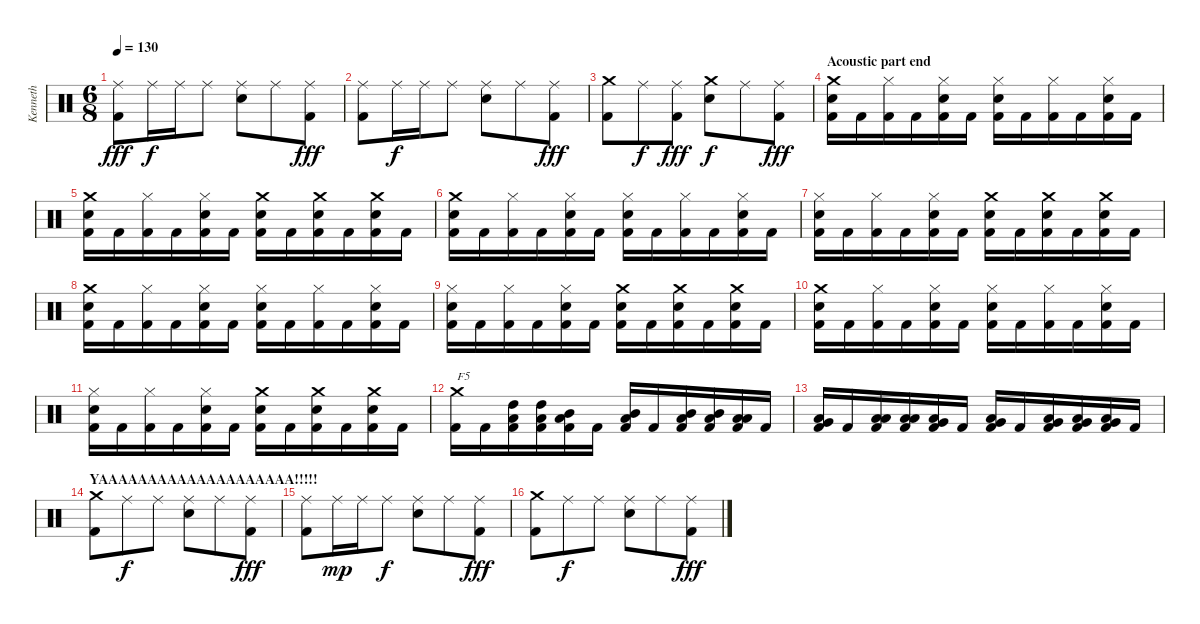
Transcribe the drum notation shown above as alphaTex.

\track ("Kenneth" "Kenneth") {instrument percussion}
\staff {score}
\articulation defaults
\ts (6 8)
\tempo 130
\clef neutral
\ks c
("Ride (middle)" "Kick (hit) 2").8{dy fff} "Ride (middle)".16{dy f} "Ride (middle)".16 "Ride (middle)".8 ("Ride (middle)" "Electric Snare (hit)").8 "Ride (middle)".8 ("Ride (middle)" "Kick (hit) 2").8{dy fff} |
("Ride (middle)" "Kick (hit) 2").8 "Ride (middle)".16{dy f} "Ride (middle)".16 "Ride (middle)".8 ("Ride (middle)" "Electric Snare (hit)").8 "Ride (middle)".8 ("Ride (middle)" "Kick (hit) 2").8{dy fff} |
("Crash medium (hit)" "Kick (hit) 2").8 "Ride (middle)".8{dy f} ("Ride (middle)" "Kick (hit) 2").8{dy fff} ("Crash medium (hit)" "Electric Snare (hit)").8{dy f} "Ride (middle)".8 ("Ride (middle)" "Kick (hit) 2").8{dy fff} |
\section ("" "Acoustic part end")
("Crash medium (hit)" "Electric Snare (hit)" "Kick (hit) 2").16 "Kick (hit) 2".16 ("Hi-Hat (closed)" "Kick (hit) 2").16 "Kick (hit) 2".16 ("Hi-Hat (closed)" "Electric Snare (hit)" "Kick (hit) 2").16 "Kick (hit) 2".16 ("Hi-Hat (closed)" "Electric Snare (hit)" "Kick (hit) 2").16 "Kick (hit) 2".16 ("Hi-Hat (closed)" "Kick (hit) 2").16 "Kick (hit) 2".16 ("Hi-Hat (closed)" "Electric Snare (hit)" "Kick (hit) 2").16 "Kick (hit) 2".16 |
("Crash medium (hit)" "Electric Snare (hit)" "Kick (hit) 2").16 "Kick (hit) 2".16 ("Hi-Hat (closed)" "Kick (hit) 2").16 "Kick (hit) 2".16 ("Hi-Hat (closed)" "Electric Snare (hit)" "Kick (hit) 2").16 "Kick (hit) 2".16 ("Crash medium (hit)" "Electric Snare (hit)" "Kick (hit) 2").16 "Kick (hit) 2".16 ("Crash medium (hit)" "Electric Snare (hit)" "Kick (hit) 2").16 "Kick (hit) 2".16 ("Crash medium (hit)" "Electric Snare (hit)" "Kick (hit) 2").16 "Kick (hit) 2".16 |
("Crash medium (hit)" "Electric Snare (hit)" "Kick (hit) 2").16 "Kick (hit) 2".16 ("Hi-Hat (closed)" "Kick (hit) 2").16 "Kick (hit) 2".16 ("Hi-Hat (closed)" "Electric Snare (hit)" "Kick (hit) 2").16 "Kick (hit) 2".16 ("Hi-Hat (closed)" "Electric Snare (hit)" "Kick (hit) 2").16 "Kick (hit) 2".16 ("Hi-Hat (closed)" "Kick (hit) 2").16 "Kick (hit) 2".16 ("Hi-Hat (closed)" "Electric Snare (hit)" "Kick (hit) 2").16 "Kick (hit) 2".16 |
("Hi-Hat (closed)" "Electric Snare (hit)" "Kick (hit) 2").16 "Kick (hit) 2".16 ("Hi-Hat (closed)" "Kick (hit) 2").16 "Kick (hit) 2".16 ("Hi-Hat (closed)" "Electric Snare (hit)" "Kick (hit) 2").16 "Kick (hit) 2".16 ("Crash medium (hit)" "Electric Snare (hit)" "Kick (hit) 2").16 "Kick (hit) 2".16 ("Crash medium (hit)" "Electric Snare (hit)" "Kick (hit) 2").16 "Kick (hit) 2".16 ("Crash medium (hit)" "Electric Snare (hit)" "Kick (hit) 2").16 "Kick (hit) 2".16 |
("Crash medium (hit)" "Electric Snare (hit)" "Kick (hit) 2").16 "Kick (hit) 2".16 ("Hi-Hat (closed)" "Kick (hit) 2").16 "Kick (hit) 2".16 ("Hi-Hat (closed)" "Electric Snare (hit)" "Kick (hit) 2").16 "Kick (hit) 2".16 ("Hi-Hat (closed)" "Electric Snare (hit)" "Kick (hit) 2").16 "Kick (hit) 2".16 ("Hi-Hat (closed)" "Kick (hit) 2").16 "Kick (hit) 2".16 ("Hi-Hat (closed)" "Electric Snare (hit)" "Kick (hit) 2").16 "Kick (hit) 2".16 |
("Hi-Hat (closed)" "Electric Snare (hit)" "Kick (hit) 2").16 "Kick (hit) 2".16 ("Hi-Hat (closed)" "Kick (hit) 2").16 "Kick (hit) 2".16 ("Hi-Hat (closed)" "Electric Snare (hit)" "Kick (hit) 2").16 "Kick (hit) 2".16 ("Crash medium (hit)" "Electric Snare (hit)" "Kick (hit) 2").16 "Kick (hit) 2".16 ("Crash medium (hit)" "Electric Snare (hit)" "Kick (hit) 2").16 "Kick (hit) 2".16 ("Crash medium (hit)" "Electric Snare (hit)" "Kick (hit) 2").16 "Kick (hit) 2".16 |
("Crash medium (hit)" "Electric Snare (hit)" "Kick (hit) 2").16 "Kick (hit) 2".16 ("Hi-Hat (closed)" "Kick (hit) 2").16 "Kick (hit) 2".16 ("Hi-Hat (closed)" "Electric Snare (hit)" "Kick (hit) 2").16 "Kick (hit) 2".16 ("Hi-Hat (closed)" "Electric Snare (hit)" "Kick (hit) 2").16 "Kick (hit) 2".16 ("Hi-Hat (closed)" "Kick (hit) 2").16 "Kick (hit) 2".16 ("Hi-Hat (closed)" "Electric Snare (hit)" "Kick (hit) 2").16 "Kick (hit) 2".16 |
("Hi-Hat (closed)" "Electric Snare (hit)" "Kick (hit) 2").16 "Kick (hit) 2".16 ("Hi-Hat (closed)" "Kick (hit) 2").16 "Kick (hit) 2".16 ("Hi-Hat (closed)" "Electric Snare (hit)" "Kick (hit) 2").16 "Kick (hit) 2".16 ("Crash medium (hit)" "Electric Snare (hit)" "Kick (hit) 2").16 "Kick (hit) 2".16 ("Crash medium (hit)" "Electric Snare (hit)" "Kick (hit) 2").16 "Kick (hit) 2".16 ("Crash medium (hit)" "Electric Snare (hit)" "Kick (hit) 2").16 "Kick (hit) 2".16 |
("Crash medium (hit)" "Kick (hit) 2").16{txt "F5"} "Kick (hit) 2".16 ("High Tom (hit)" "Low Floor Tom (hit)" "Kick (hit) 2").16 ("High Tom (hit)" "Low Floor Tom (hit)" "Kick (hit) 2").16 ("Mid Tom (hit)" "Low Floor Tom (hit)" "Kick (hit) 2").16 "Kick (hit) 2".16 ("Mid Tom (hit)" "Low Tom (hit)" "Kick (hit) 2").16 "Kick (hit) 2".16 ("Mid Tom (hit)" "Low Floor Tom (hit)" "Kick (hit) 2").16 ("Mid Tom (hit)" "Low Floor Tom (hit)" "Kick (hit) 2").16 ("Low Tom (hit)" "Low Floor Tom (hit)" "Kick (hit) 2").16 "Kick (hit) 2".16 |
("Low Tom (hit)" "Very Low Tom (hit)" "Kick (hit) 2").16 "Kick (hit) 2".16 ("Low Tom (hit)" "Low Floor Tom (hit)" "Kick (hit) 2").16 ("Low Tom (hit)" "Low Floor Tom (hit)" "Kick (hit) 2").16 ("Very Low Tom (hit)" "Low Floor Tom (hit)" "Kick (hit) 2").16 "Kick (hit) 2".16 ("Very Low Tom (hit)" "Low Floor Tom (hit)" "Kick (hit) 2").16 "Kick (hit) 2".16 ("Very Low Tom (hit)" "Low Floor Tom (hit)" "Kick (hit) 2").16 ("Very Low Tom (hit)" "Low Floor Tom (hit)" "Kick (hit) 2").16 ("Low Floor Tom (hit)" "Very Low Tom (hit)" "Kick (hit) 2").16 "Kick (hit) 2".16 |
\section ("" "YAAAAAAAAAAAAAAAAAAAA!!!!!")
("Crash medium (hit)" "Kick (hit) 2").8 "Ride (middle)".8{dy f} "Ride (middle)".8 ("Ride (middle)" "Electric Snare (hit)").8 "Ride (middle)".8 ("Ride (middle)" "Kick (hit) 2").8{dy fff} |
("Ride (middle)" "Kick (hit) 2").8 "Ride (middle)".16{dy mp} "Ride (middle)".16 "Ride (middle)".8{dy f} ("Ride (middle)" "Electric Snare (hit)").8 "Ride (middle)".8 ("Ride (middle)" "Kick (hit) 2").8{dy fff} |
("Crash medium (hit)" "Kick (hit) 2").8 "Ride (middle)".8{dy f} "Ride (middle)".8 ("Ride (middle)" "Electric Snare (hit)").8 "Ride (middle)".8 ("Ride (middle)" "Kick (hit) 2").8{dy fff}
